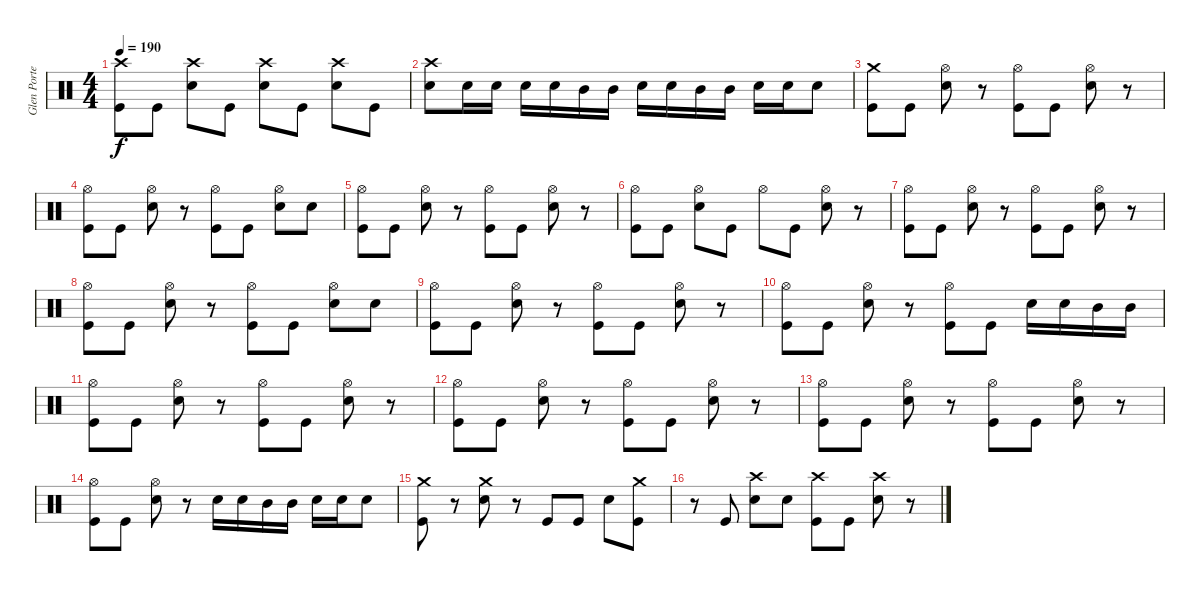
\track ("Glen Porter" "Glen Porte") {instrument percussion}
\staff {score}
\articulation defaults
\ts (4 4)
\tempo 190
\clef neutral
\ks c
("Crash high (hit)" "Kick (hit)").8{dy f} "Kick (hit)".8 ("Crash high (hit)" "Snare (hit) 2").8 "Kick (hit)".8 ("Crash high (hit)" "Snare (hit) 2").8 "Kick (hit)".8 ("Crash high (hit)" "Snare (hit) 2").8 "Kick (hit)".8 |
("Crash high (hit)" "Snare (hit) 2").8 "Snare (hit) 2".16 "Snare (hit) 2".16 "Snare (hit) 2".16 "Snare (hit) 2".16 "Mid Tom (hit)".16 "Mid Tom (hit)".16 "Snare (hit) 2".16 "Snare (hit) 2".16 "Mid Tom (hit)".16 "Mid Tom (hit)".16 "Snare (hit) 2".16 "Snare (hit) 2".16 "Snare (hit) 2".8 |
("Crash medium (hit)" "Kick (hit)").8 "Kick (hit)".8 ("Hi-Hat (open)" "Snare (hit) 2").8 r.8 ("Hi-Hat (open)" "Kick (hit)").8 "Kick (hit)".8 ("Hi-Hat (open)" "Snare (hit) 2").8 r.8 |
("Hi-Hat (open)" "Kick (hit)").8 "Kick (hit)".8 ("Hi-Hat (open)" "Snare (hit) 2").8 r.8 ("Hi-Hat (open)" "Kick (hit)").8 "Kick (hit)".8 ("Hi-Hat (open)" "Snare (hit) 2").8 "Snare (hit) 2".8 |
("Hi-Hat (open)" "Kick (hit)").8 "Kick (hit)".8 ("Hi-Hat (open)" "Snare (hit) 2").8 r.8 ("Hi-Hat (open)" "Kick (hit)").8 "Kick (hit)".8 ("Hi-Hat (open)" "Snare (hit) 2").8 r.8 |
("Hi-Hat (open)" "Kick (hit)").8 "Kick (hit)".8 ("Hi-Hat (open)" "Snare (hit) 2").8 "Kick (hit)".8 "Hi-Hat (open)".8 "Kick (hit)".8 ("Hi-Hat (open)" "Snare (hit) 2").8 r.8 |
("Hi-Hat (open)" "Kick (hit)").8 "Kick (hit)".8 ("Hi-Hat (open)" "Snare (hit) 2").8 r.8 ("Hi-Hat (open)" "Kick (hit)").8 "Kick (hit)".8 ("Hi-Hat (open)" "Snare (hit) 2").8 r.8 |
("Hi-Hat (open)" "Kick (hit)").8 "Kick (hit)".8 ("Hi-Hat (open)" "Snare (hit) 2").8 r.8 ("Hi-Hat (open)" "Kick (hit)").8 "Kick (hit)".8 ("Hi-Hat (open)" "Snare (hit) 2").8 "Snare (hit) 2".8 |
("Hi-Hat (open)" "Kick (hit)").8 "Kick (hit)".8 ("Hi-Hat (open)" "Snare (hit) 2").8 r.8 ("Hi-Hat (open)" "Kick (hit)").8 "Kick (hit)".8 ("Hi-Hat (open)" "Snare (hit) 2").8 r.8 |
("Hi-Hat (open)" "Kick (hit)").8 "Kick (hit)".8 ("Hi-Hat (open)" "Snare (hit) 2").8 r.8 ("Hi-Hat (open)" "Kick (hit)").8 "Kick (hit)".8 "Snare (hit) 2".16 "Snare (hit) 2".16 "Mid Tom (hit)".16 "Mid Tom (hit)".16 |
("Hi-Hat (open)" "Kick (hit)").8 "Kick (hit)".8 ("Hi-Hat (open)" "Snare (hit) 2").8 r.8 ("Hi-Hat (open)" "Kick (hit)").8 "Kick (hit)".8 ("Hi-Hat (open)" "Snare (hit) 2").8 r.8 |
("Hi-Hat (open)" "Kick (hit)").8 "Kick (hit)".8 ("Hi-Hat (open)" "Snare (hit) 2").8 r.8 ("Hi-Hat (open)" "Kick (hit)").8 "Kick (hit)".8 ("Hi-Hat (open)" "Snare (hit) 2").8 r.8 |
("Hi-Hat (open)" "Kick (hit)").8 "Kick (hit)".8 ("Hi-Hat (open)" "Snare (hit) 2").8 r.8 ("Hi-Hat (open)" "Kick (hit)").8 "Kick (hit)".8 ("Hi-Hat (open)" "Snare (hit) 2").8 r.8 |
("Hi-Hat (open)" "Kick (hit)").8 "Kick (hit)".8 ("Hi-Hat (open)" "Snare (hit) 2").8 r.8 "Snare (hit) 2".16 "Snare (hit) 2".16 "Mid Tom (hit)".16 "Mid Tom (hit)".16 "Snare (hit) 2".16 "Snare (hit) 2".16 "Snare (hit) 2".8 |
("Crash medium (hit)" "Kick (hit)").8 r.8 ("Crash medium (hit)" "Snare (hit) 2").8 r.8 "Kick (hit)".8 "Kick (hit)".8 "Snare (hit) 2".8 ("Crash medium (hit)" "Kick (hit)").8 |
r.8 "Kick (hit)".8 ("Crash high (hit)" "Snare (hit) 2").8 "Snare (hit) 2".8 ("Crash high (hit)" "Kick (hit)").8 "Kick (hit)".8 ("Crash high (hit)" "Snare (hit) 2").8 r.8
